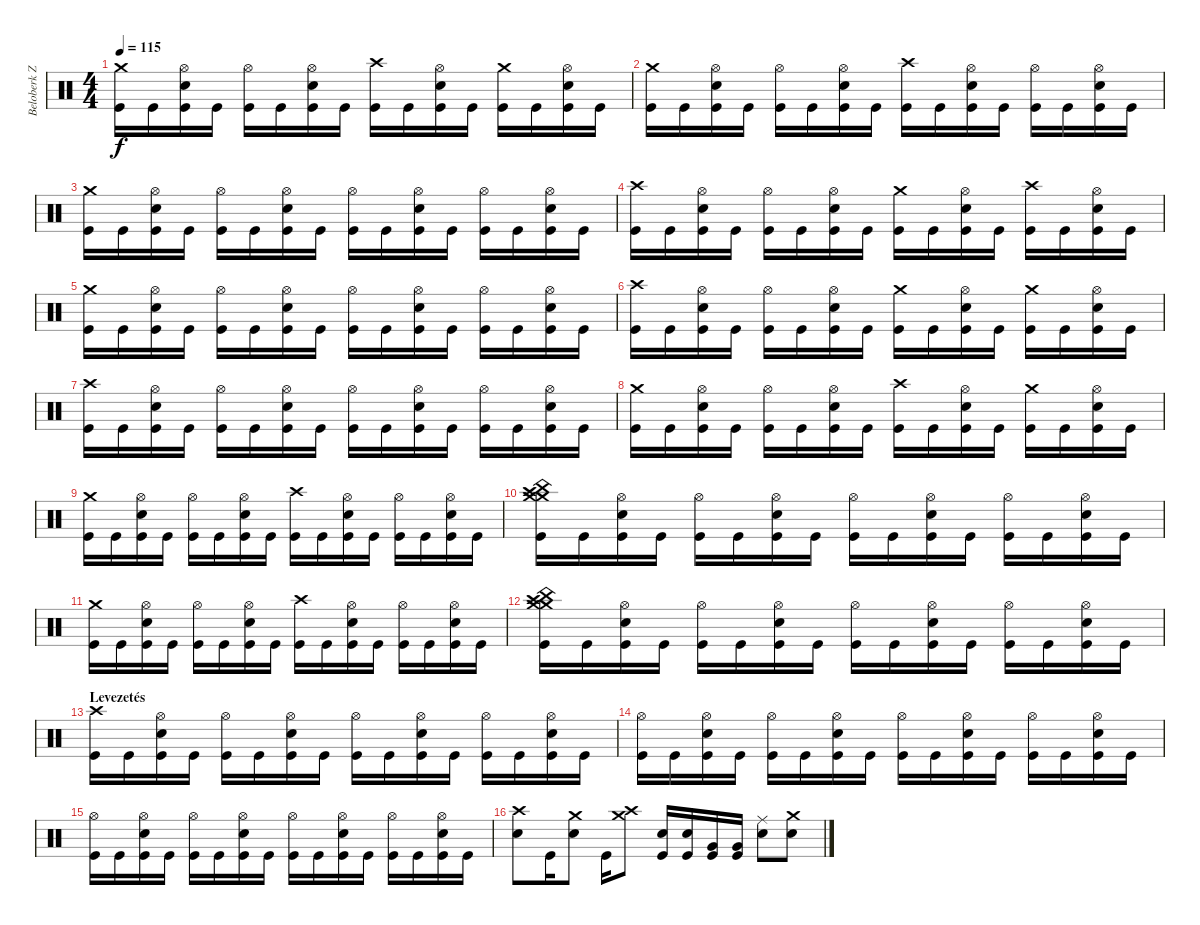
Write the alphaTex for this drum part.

\track ("Beloberk Zsolt /dob/" "Beloberk Z") {instrument percussion}
\staff {score}
\articulation defaults
\ts (4 4)
\tempo 115
\clef neutral
\ks c
("Crash medium (hit)" "Kick (hit)").16{dy f} "Kick (hit)".16 ("Hi-Hat (open)" "Electric Snare (hit)" "Kick (hit)").16 "Kick (hit)".16 ("Hi-Hat (open)" "Kick (hit)").16 "Kick (hit)".16 ("Hi-Hat (open)" "Electric Snare (hit)" "Kick (hit)").16 "Kick (hit)".16 ("Crash high (hit)" "Kick (hit)").16 "Kick (hit)".16 ("Hi-Hat (open)" "Electric Snare (hit)" "Kick (hit)").16 "Kick (hit)".16 ("Crash medium (hit)" "Kick (hit)").16 "Kick (hit)".16 ("Hi-Hat (open)" "Electric Snare (hit)" "Kick (hit)").16 "Kick (hit)".16 |
("Crash medium (hit)" "Kick (hit)").16 "Kick (hit)".16 ("Hi-Hat (open)" "Electric Snare (hit)" "Kick (hit)").16 "Kick (hit)".16 ("Hi-Hat (open)" "Kick (hit)").16 "Kick (hit)".16 ("Hi-Hat (open)" "Electric Snare (hit)" "Kick (hit)").16 "Kick (hit)".16 ("Crash high (hit)" "Kick (hit)").16 "Kick (hit)".16 ("Hi-Hat (open)" "Electric Snare (hit)" "Kick (hit)").16 "Kick (hit)".16 ("Hi-Hat (open)" "Kick (hit)").16 "Kick (hit)".16 ("Hi-Hat (open)" "Electric Snare (hit)" "Kick (hit)").16 "Kick (hit)".16 |
("Crash medium (hit)" "Kick (hit)").16 "Kick (hit)".16 ("Hi-Hat (open)" "Electric Snare (hit)" "Kick (hit)").16 "Kick (hit)".16 ("Hi-Hat (open)" "Kick (hit)").16 "Kick (hit)".16 ("Hi-Hat (open)" "Electric Snare (hit)" "Kick (hit)").16 "Kick (hit)".16 ("Hi-Hat (open)" "Kick (hit)").16 "Kick (hit)".16 ("Hi-Hat (open)" "Electric Snare (hit)" "Kick (hit)").16 "Kick (hit)".16 ("Hi-Hat (open)" "Kick (hit)").16 "Kick (hit)".16 ("Hi-Hat (open)" "Electric Snare (hit)" "Kick (hit)").16 "Kick (hit)".16 |
("Crash high (hit)" "Kick (hit)").16 "Kick (hit)".16 ("Hi-Hat (open)" "Electric Snare (hit)" "Kick (hit)").16 "Kick (hit)".16 ("Hi-Hat (open)" "Kick (hit)").16 "Kick (hit)".16 ("Hi-Hat (open)" "Electric Snare (hit)" "Kick (hit)").16 "Kick (hit)".16 ("Crash medium (hit)" "Kick (hit)").16 "Kick (hit)".16 ("Hi-Hat (open)" "Electric Snare (hit)" "Kick (hit)").16 "Kick (hit)".16 ("Crash high (hit)" "Kick (hit)").16 "Kick (hit)".16 ("Hi-Hat (open)" "Electric Snare (hit)" "Kick (hit)").16 "Kick (hit)".16 |
("Crash medium (hit)" "Kick (hit)").16 "Kick (hit)".16 ("Hi-Hat (open)" "Electric Snare (hit)" "Kick (hit)").16 "Kick (hit)".16 ("Hi-Hat (open)" "Kick (hit)").16 "Kick (hit)".16 ("Hi-Hat (open)" "Electric Snare (hit)" "Kick (hit)").16 "Kick (hit)".16 ("Hi-Hat (open)" "Kick (hit)").16 "Kick (hit)".16 ("Hi-Hat (open)" "Electric Snare (hit)" "Kick (hit)").16 "Kick (hit)".16 ("Hi-Hat (open)" "Kick (hit)").16 "Kick (hit)".16 ("Hi-Hat (open)" "Electric Snare (hit)" "Kick (hit)").16 "Kick (hit)".16 |
("Crash high (hit)" "Kick (hit)").16 "Kick (hit)".16 ("Hi-Hat (open)" "Electric Snare (hit)" "Kick (hit)").16 "Kick (hit)".16 ("Hi-Hat (open)" "Kick (hit)").16 "Kick (hit)".16 ("Hi-Hat (open)" "Electric Snare (hit)" "Kick (hit)").16 "Kick (hit)".16 ("Crash medium (hit)" "Kick (hit)").16 "Kick (hit)".16 ("Hi-Hat (open)" "Electric Snare (hit)" "Kick (hit)").16 "Kick (hit)".16 ("Crash medium (hit)" "Kick (hit)").16 "Kick (hit)".16 ("Hi-Hat (open)" "Electric Snare (hit)" "Kick (hit)").16 "Kick (hit)".16 |
("Crash high (hit)" "Kick (hit)").16 "Kick (hit)".16 ("Hi-Hat (open)" "Electric Snare (hit)" "Kick (hit)").16 "Kick (hit)".16 ("Hi-Hat (open)" "Kick (hit)").16 "Kick (hit)".16 ("Hi-Hat (open)" "Electric Snare (hit)" "Kick (hit)").16 "Kick (hit)".16 ("Hi-Hat (open)" "Kick (hit)").16 "Kick (hit)".16 ("Hi-Hat (open)" "Electric Snare (hit)" "Kick (hit)").16 "Kick (hit)".16 ("Hi-Hat (open)" "Kick (hit)").16 "Kick (hit)".16 ("Hi-Hat (open)" "Electric Snare (hit)" "Kick (hit)").16 "Kick (hit)".16 |
("Crash medium (hit)" "Kick (hit)").16 "Kick (hit)".16 ("Hi-Hat (open)" "Electric Snare (hit)" "Kick (hit)").16 "Kick (hit)".16 ("Hi-Hat (open)" "Kick (hit)").16 "Kick (hit)".16 ("Hi-Hat (open)" "Electric Snare (hit)" "Kick (hit)").16 "Kick (hit)".16 ("Crash high (hit)" "Kick (hit)").16 "Kick (hit)".16 ("Hi-Hat (open)" "Electric Snare (hit)" "Kick (hit)").16 "Kick (hit)".16 ("Crash medium (hit)" "Kick (hit)").16 "Kick (hit)".16 ("Hi-Hat (open)" "Electric Snare (hit)" "Kick (hit)").16 "Kick (hit)".16 |
("Crash medium (hit)" "Kick (hit)").16 "Kick (hit)".16 ("Hi-Hat (open)" "Electric Snare (hit)" "Kick (hit)").16 "Kick (hit)".16 ("Hi-Hat (open)" "Kick (hit)").16 "Kick (hit)".16 ("Hi-Hat (open)" "Electric Snare (hit)" "Kick (hit)").16 "Kick (hit)".16 ("Crash high (hit)" "Kick (hit)").16 "Kick (hit)".16 ("Hi-Hat (open)" "Electric Snare (hit)" "Kick (hit)").16 "Kick (hit)".16 ("Hi-Hat (open)" "Kick (hit)").16 "Kick (hit)".16 ("Hi-Hat (open)" "Electric Snare (hit)" "Kick (hit)").16 "Kick (hit)".16 |
("Crash medium (hit)" "Kick (hit)" "China (hit)" "Crash high (hit)" "Crash medium (hit)").16 "Kick (hit)".16 ("Hi-Hat (open)" "Electric Snare (hit)" "Kick (hit)").16 "Kick (hit)".16 ("Hi-Hat (open)" "Kick (hit)").16 "Kick (hit)".16 ("Hi-Hat (open)" "Electric Snare (hit)" "Kick (hit)").16 "Kick (hit)".16 ("Hi-Hat (open)" "Kick (hit)").16 "Kick (hit)".16 ("Hi-Hat (open)" "Electric Snare (hit)" "Kick (hit)").16 "Kick (hit)".16 ("Hi-Hat (open)" "Kick (hit)").16 "Kick (hit)".16 ("Hi-Hat (open)" "Electric Snare (hit)" "Kick (hit)").16 "Kick (hit)".16 |
("Crash medium (hit)" "Kick (hit)").16 "Kick (hit)".16 ("Hi-Hat (open)" "Electric Snare (hit)" "Kick (hit)").16 "Kick (hit)".16 ("Hi-Hat (open)" "Kick (hit)").16 "Kick (hit)".16 ("Hi-Hat (open)" "Electric Snare (hit)" "Kick (hit)").16 "Kick (hit)".16 ("Crash high (hit)" "Kick (hit)").16 "Kick (hit)".16 ("Hi-Hat (open)" "Electric Snare (hit)" "Kick (hit)").16 "Kick (hit)".16 ("Hi-Hat (open)" "Kick (hit)").16 "Kick (hit)".16 ("Hi-Hat (open)" "Electric Snare (hit)" "Kick (hit)").16 "Kick (hit)".16 |
("Crash medium (hit)" "Kick (hit)" "China (hit)" "Crash high (hit)" "Crash medium (hit)").16 "Kick (hit)".16 ("Hi-Hat (open)" "Electric Snare (hit)" "Kick (hit)").16 "Kick (hit)".16 ("Hi-Hat (open)" "Kick (hit)").16 "Kick (hit)".16 ("Hi-Hat (open)" "Electric Snare (hit)" "Kick (hit)").16 "Kick (hit)".16 ("Hi-Hat (open)" "Kick (hit)").16 "Kick (hit)".16 ("Hi-Hat (open)" "Electric Snare (hit)" "Kick (hit)").16 "Kick (hit)".16 ("Hi-Hat (open)" "Kick (hit)").16 "Kick (hit)".16 ("Hi-Hat (open)" "Electric Snare (hit)" "Kick (hit)").16 "Kick (hit)".16 |
\section ("" "Levezetés")
("Crash high (hit)" "Kick (hit)").16 "Kick (hit)".16 ("Hi-Hat (open)" "Electric Snare (hit)" "Kick (hit)").16 "Kick (hit)".16 ("Hi-Hat (open)" "Kick (hit)").16 "Kick (hit)".16 ("Hi-Hat (open)" "Electric Snare (hit)" "Kick (hit)").16 "Kick (hit)".16 ("Hi-Hat (open)" "Kick (hit)").16 "Kick (hit)".16 ("Hi-Hat (open)" "Electric Snare (hit)" "Kick (hit)").16 "Kick (hit)".16 ("Hi-Hat (open)" "Kick (hit)").16 "Kick (hit)".16 ("Hi-Hat (open)" "Electric Snare (hit)" "Kick (hit)").16 "Kick (hit)".16 |
("Hi-Hat (open)" "Kick (hit)").16 "Kick (hit)".16 ("Hi-Hat (open)" "Electric Snare (hit)" "Kick (hit)").16 "Kick (hit)".16 ("Hi-Hat (open)" "Kick (hit)").16 "Kick (hit)".16 ("Hi-Hat (open)" "Electric Snare (hit)" "Kick (hit)").16 "Kick (hit)".16 ("Hi-Hat (open)" "Kick (hit)").16 "Kick (hit)".16 ("Hi-Hat (open)" "Electric Snare (hit)" "Kick (hit)").16 "Kick (hit)".16 ("Hi-Hat (open)" "Kick (hit)").16 "Kick (hit)".16 ("Hi-Hat (open)" "Electric Snare (hit)" "Kick (hit)").16 "Kick (hit)".16 |
("Hi-Hat (open)" "Kick (hit)").16 "Kick (hit)".16 ("Hi-Hat (open)" "Electric Snare (hit)" "Kick (hit)").16 "Kick (hit)".16 ("Hi-Hat (open)" "Kick (hit)").16 "Kick (hit)".16 ("Hi-Hat (open)" "Electric Snare (hit)" "Kick (hit)").16 "Kick (hit)".16 ("Hi-Hat (open)" "Kick (hit)").16 "Kick (hit)".16 ("Hi-Hat (open)" "Electric Snare (hit)" "Kick (hit)").16 "Kick (hit)".16 ("Hi-Hat (open)" "Kick (hit)").16 "Kick (hit)".16 ("Hi-Hat (open)" "Electric Snare (hit)" "Kick (hit)").16 "Kick (hit)".16 |
("Crash high (hit)" "Snare (hit) 2").8 "Kick (hit)".16 ("Crash medium (hit)" "Snare (hit) 2").8 "Kick (hit)".16 ("Crash medium (hit)" "Crash high (hit)").8 ("Snare (hit) 2" "Kick (hit)").16 ("Snare (hit) 2" "Kick (hit)").16 ("Very Low Tom (hit)" "Kick (hit)").16 ("Very Low Tom (hit)" "Kick (hit)").16 ("Ride (middle)" "Snare (hit) 2").8 ("Crash medium (hit)" "Snare (hit) 2").8
